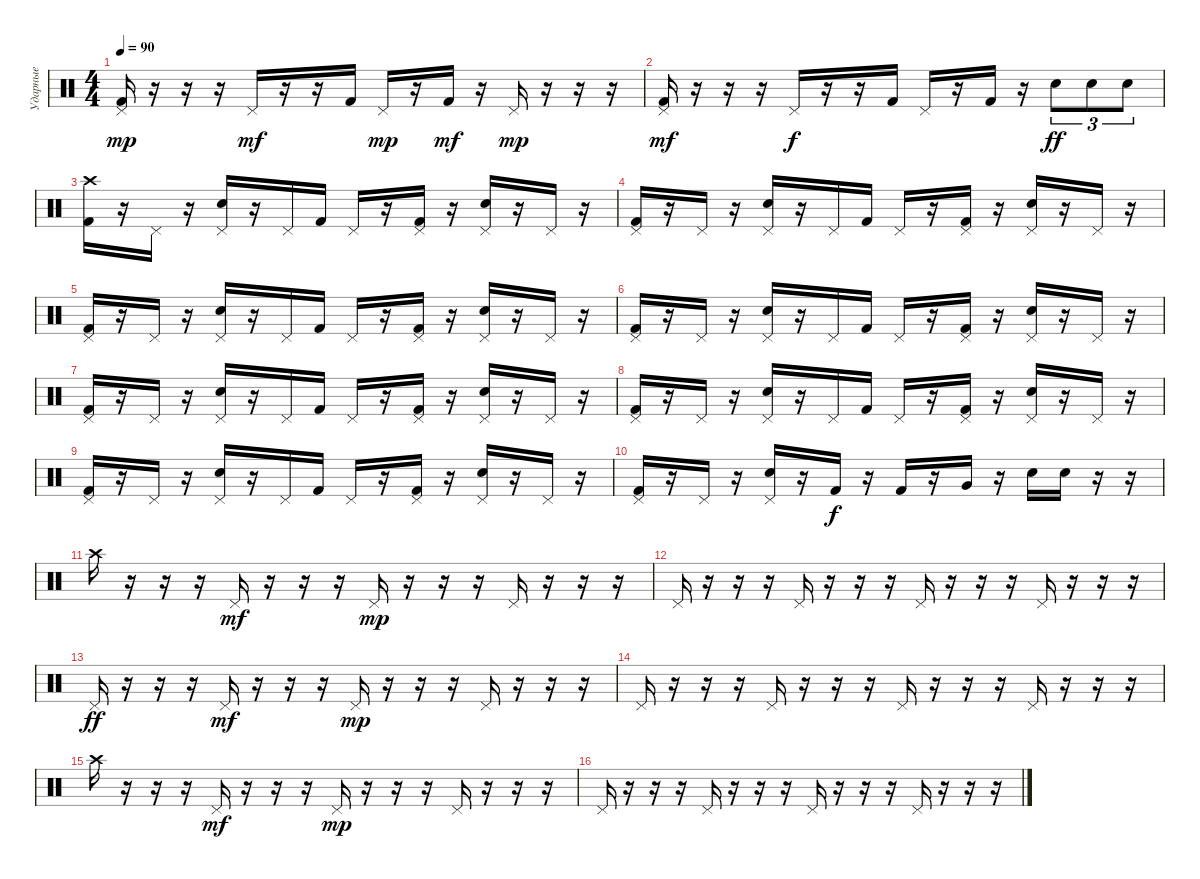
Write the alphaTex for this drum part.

\track ("Ударные" "Ударные") {instrument percussion}
\staff {score}
\articulation defaults
\ts (4 4)
\tempo 90
\clef neutral
\ks aminor
("Pedal Hi-Hat (hit)" "Kick (hit) 2").16{dy mp} r.16 r.16 r.16 "Pedal Hi-Hat (hit)".16{dy mf} r.16 r.16 "Kick (hit) 2".16 "Pedal Hi-Hat (hit)".16{dy mp} r.16 "Kick (hit) 2".16{dy mf} r.16 "Pedal Hi-Hat (hit)".16{dy mp} r.16 r.16 r.16 |
("Pedal Hi-Hat (hit)" "Kick (hit) 2").16{dy mf} r.16 r.16 r.16 "Pedal Hi-Hat (hit)".16{dy f} r.16 r.16 "Kick (hit) 2".16 "Pedal Hi-Hat (hit)".16 r.16 "Kick (hit) 2".16 r.16 "Electric Snare (hit)".8{tu (3 2) dy ff} "Electric Snare (hit)".8{tu (3 2)} "Electric Snare (hit)".8{tu (3 2)} |
("Crash high (hit)" "Kick (hit) 2").16 r.16 "Pedal Hi-Hat (hit)".16 r.16 ("Pedal Hi-Hat (hit)" "Electric Snare (hit)").16 r.16 "Pedal Hi-Hat (hit)".16 "Kick (hit) 2".16 "Pedal Hi-Hat (hit)".16 r.16 ("Pedal Hi-Hat (hit)" "Kick (hit) 2").16 r.16 ("Pedal Hi-Hat (hit)" "Electric Snare (hit)").16 r.16 "Pedal Hi-Hat (hit)".16 r.16 |
("Pedal Hi-Hat (hit)" "Kick (hit) 2").16 r.16 "Pedal Hi-Hat (hit)".16 r.16 ("Pedal Hi-Hat (hit)" "Electric Snare (hit)").16 r.16 "Pedal Hi-Hat (hit)".16 "Kick (hit) 2".16 "Pedal Hi-Hat (hit)".16 r.16 ("Pedal Hi-Hat (hit)" "Kick (hit) 2").16 r.16 ("Pedal Hi-Hat (hit)" "Electric Snare (hit)").16 r.16 "Pedal Hi-Hat (hit)".16 r.16 |
("Pedal Hi-Hat (hit)" "Kick (hit) 2").16 r.16 "Pedal Hi-Hat (hit)".16 r.16 ("Pedal Hi-Hat (hit)" "Electric Snare (hit)").16 r.16 "Pedal Hi-Hat (hit)".16 "Kick (hit) 2".16 "Pedal Hi-Hat (hit)".16 r.16 ("Pedal Hi-Hat (hit)" "Kick (hit) 2").16 r.16 ("Pedal Hi-Hat (hit)" "Electric Snare (hit)").16 r.16 "Pedal Hi-Hat (hit)".16 r.16 |
("Pedal Hi-Hat (hit)" "Kick (hit) 2").16 r.16 "Pedal Hi-Hat (hit)".16 r.16 ("Pedal Hi-Hat (hit)" "Electric Snare (hit)").16 r.16 "Pedal Hi-Hat (hit)".16 "Kick (hit) 2".16 "Pedal Hi-Hat (hit)".16 r.16 ("Pedal Hi-Hat (hit)" "Kick (hit) 2").16 r.16 ("Pedal Hi-Hat (hit)" "Electric Snare (hit)").16 r.16 "Pedal Hi-Hat (hit)".16 r.16 |
("Pedal Hi-Hat (hit)" "Kick (hit) 2").16 r.16 "Pedal Hi-Hat (hit)".16 r.16 ("Pedal Hi-Hat (hit)" "Electric Snare (hit)").16 r.16 "Pedal Hi-Hat (hit)".16 "Kick (hit) 2".16 "Pedal Hi-Hat (hit)".16 r.16 ("Pedal Hi-Hat (hit)" "Kick (hit) 2").16 r.16 ("Pedal Hi-Hat (hit)" "Electric Snare (hit)").16 r.16 "Pedal Hi-Hat (hit)".16 r.16 |
("Pedal Hi-Hat (hit)" "Kick (hit) 2").16 r.16 "Pedal Hi-Hat (hit)".16 r.16 ("Pedal Hi-Hat (hit)" "Electric Snare (hit)").16 r.16 "Pedal Hi-Hat (hit)".16 "Kick (hit) 2".16 "Pedal Hi-Hat (hit)".16 r.16 ("Pedal Hi-Hat (hit)" "Kick (hit) 2").16 r.16 ("Pedal Hi-Hat (hit)" "Electric Snare (hit)").16 r.16 "Pedal Hi-Hat (hit)".16 r.16 |
("Pedal Hi-Hat (hit)" "Kick (hit) 2").16 r.16 "Pedal Hi-Hat (hit)".16 r.16 ("Pedal Hi-Hat (hit)" "Electric Snare (hit)").16 r.16 "Pedal Hi-Hat (hit)".16 "Kick (hit) 2".16 "Pedal Hi-Hat (hit)".16 r.16 ("Pedal Hi-Hat (hit)" "Kick (hit) 2").16 r.16 ("Pedal Hi-Hat (hit)" "Electric Snare (hit)").16 r.16 "Pedal Hi-Hat (hit)".16 r.16 |
("Pedal Hi-Hat (hit)" "Kick (hit) 2").16 r.16 "Pedal Hi-Hat (hit)".16 r.16 ("Pedal Hi-Hat (hit)" "Electric Snare (hit)").16 r.16 "Kick (hit) 2".16{dy f} r.16 "Kick (hit) 2".16 r.16 "Very Low Tom (hit)".16 r.16 "Electric Snare (hit)".16 "Electric Snare (hit)".16 r.16 r.16 |
"Crash high (hit)".16 r.16 r.16 r.16 "Pedal Hi-Hat (hit)".16{dy mf} r.16 r.16 r.16 "Pedal Hi-Hat (hit)".16{dy mp} r.16 r.16 r.16 "Pedal Hi-Hat (hit)".16 r.16 r.16 r.16 |
"Pedal Hi-Hat (hit)".16 r.16 r.16 r.16 "Pedal Hi-Hat (hit)".16 r.16 r.16 r.16 "Pedal Hi-Hat (hit)".16 r.16 r.16 r.16 "Pedal Hi-Hat (hit)".16 r.16 r.16 r.16 |
"Pedal Hi-Hat (hit)".16{dy ff} r.16 r.16 r.16 "Pedal Hi-Hat (hit)".16{dy mf} r.16 r.16 r.16 "Pedal Hi-Hat (hit)".16{dy mp} r.16 r.16 r.16 "Pedal Hi-Hat (hit)".16 r.16 r.16 r.16 |
"Pedal Hi-Hat (hit)".16 r.16 r.16 r.16 "Pedal Hi-Hat (hit)".16 r.16 r.16 r.16 "Pedal Hi-Hat (hit)".16 r.16 r.16 r.16 "Pedal Hi-Hat (hit)".16 r.16 r.16 r.16 |
"Crash high (hit)".16 r.16 r.16 r.16 "Pedal Hi-Hat (hit)".16{dy mf} r.16 r.16 r.16 "Pedal Hi-Hat (hit)".16{dy mp} r.16 r.16 r.16 "Pedal Hi-Hat (hit)".16 r.16 r.16 r.16 |
"Pedal Hi-Hat (hit)".16 r.16 r.16 r.16 "Pedal Hi-Hat (hit)".16 r.16 r.16 r.16 "Pedal Hi-Hat (hit)".16 r.16 r.16 r.16 "Pedal Hi-Hat (hit)".16 r.16 r.16 r.16
